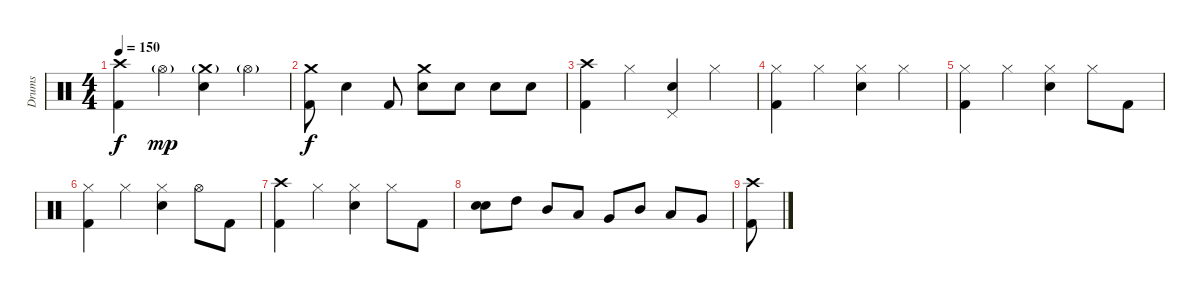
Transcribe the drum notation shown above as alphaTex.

\track ("Drums" "Drums") {instrument percussion}
\staff {score}
\articulation defaults
\ts (4 4)
\tempo 150
\clef neutral
\ks c
("Crash high (hit)" "Kick (hit) 2").4{dy f} "Hi-Hat (open)"{g}.4{dy mp} ("Crash medium (hit)"{g} "Electric Snare (hit)").4 "Hi-Hat (open)"{g}.4 |
("Crash medium (hit)" "Kick (hit) 2").8{dy f} "Electric Snare (hit)".4 "Kick (hit) 2".8 ("Crash medium (hit)" "Electric Snare (hit)").8 "Electric Snare (hit)".8 "Electric Snare (hit)".8 "Electric Snare (hit)".8 |
("Crash high (hit)" "Kick (hit) 2").4 "Hi-Hat (closed)".4 ("Pedal Hi-Hat (hit)" "Electric Snare (hit)").4 "Hi-Hat (closed)".4 |
("Hi-Hat (closed)" "Kick (hit) 2").4 "Hi-Hat (closed)".4 ("Hi-Hat (closed)" "Electric Snare (hit)").4 "Hi-Hat (closed)".4 |
("Hi-Hat (closed)" "Kick (hit) 2").4 "Hi-Hat (closed)".4 ("Hi-Hat (closed)" "Electric Snare (hit)").4 "Hi-Hat (closed)".8 "Kick (hit) 2".8 |
("Hi-Hat (closed)" "Kick (hit) 2").4 "Hi-Hat (closed)".4 ("Hi-Hat (closed)" "Electric Snare (hit)").4 "Hi-Hat (open)".8 "Kick (hit) 2".8 |
("Crash high (hit)" "Kick (hit) 2").4 "Hi-Hat (closed)".4 ("Hi-Hat (closed)" "Electric Snare (hit)").4 "Hi-Hat (closed)".8 "Kick (hit) 2".8 |
("Electric Snare (hit)" "Electric Snare (hit)").8{bd 240} "High Tom (hit)".8 "Mid Tom (hit)".8 "Low Tom (hit)".8 "Very Low Tom (hit)".8 "Mid Tom (hit)".8 "Low Tom (hit)".8 "Very Low Tom (hit)".8 |
("Crash high (hit)" "Kick (hit) 2").8
